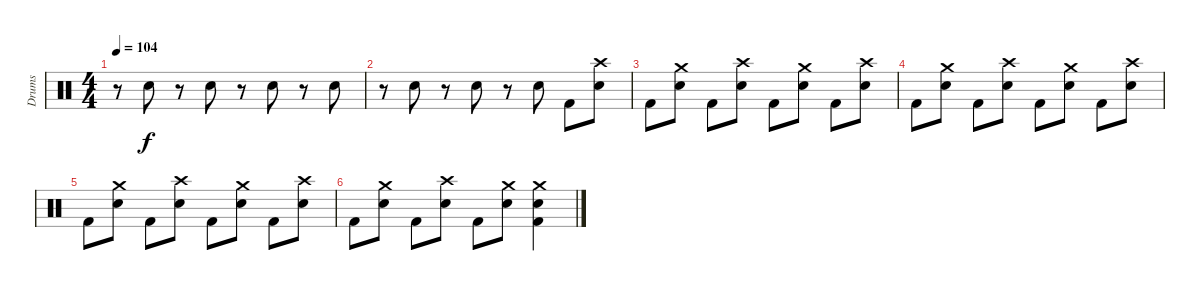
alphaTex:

\track ("Drums" "Drums") {instrument percussion}
\staff {score}
\articulation defaults
\ts (4 4)
\tempo 104
\clef neutral
\ks c
r.8{dy f} "Snare (hit) 2".8 r.8 "Snare (hit) 2".8 r.8 "Snare (hit) 2".8 r.8 "Snare (hit) 2".8 |
r.8 "Snare (hit) 2".8 r.8 "Snare (hit) 2".8 r.8 "Snare (hit) 2".8 "Kick (hit) 2".8 ("Crash high (hit)" "Snare (hit) 2").8 |
"Kick (hit) 2".8 ("Crash medium (hit)" "Snare (hit) 2").8 "Kick (hit) 2".8 ("Crash high (hit)" "Snare (hit) 2").8 "Kick (hit) 2".8 ("Crash medium (hit)" "Snare (hit) 2").8 "Kick (hit) 2".8 ("Crash high (hit)" "Snare (hit) 2").8 |
"Kick (hit) 2".8 ("Crash medium (hit)" "Snare (hit) 2").8 "Kick (hit) 2".8 ("Crash high (hit)" "Snare (hit) 2").8 "Kick (hit) 2".8 ("Crash medium (hit)" "Snare (hit) 2").8 "Kick (hit) 2".8 ("Crash high (hit)" "Snare (hit) 2").8 |
"Kick (hit) 2".8 ("Crash medium (hit)" "Snare (hit) 2").8 "Kick (hit) 2".8 ("Crash high (hit)" "Snare (hit) 2").8 "Kick (hit) 2".8 ("Crash medium (hit)" "Snare (hit) 2").8 "Kick (hit) 2".8 ("Crash high (hit)" "Snare (hit) 2").8 |
"Kick (hit) 2".8 ("Crash medium (hit)" "Snare (hit) 2").8 "Kick (hit) 2".8 ("Crash high (hit)" "Snare (hit) 2").8 "Kick (hit) 2".8 ("Crash medium (hit)" "Snare (hit) 2").8 ("Crash medium (hit)" "Snare (hit) 2" "Kick (hit) 2").4
